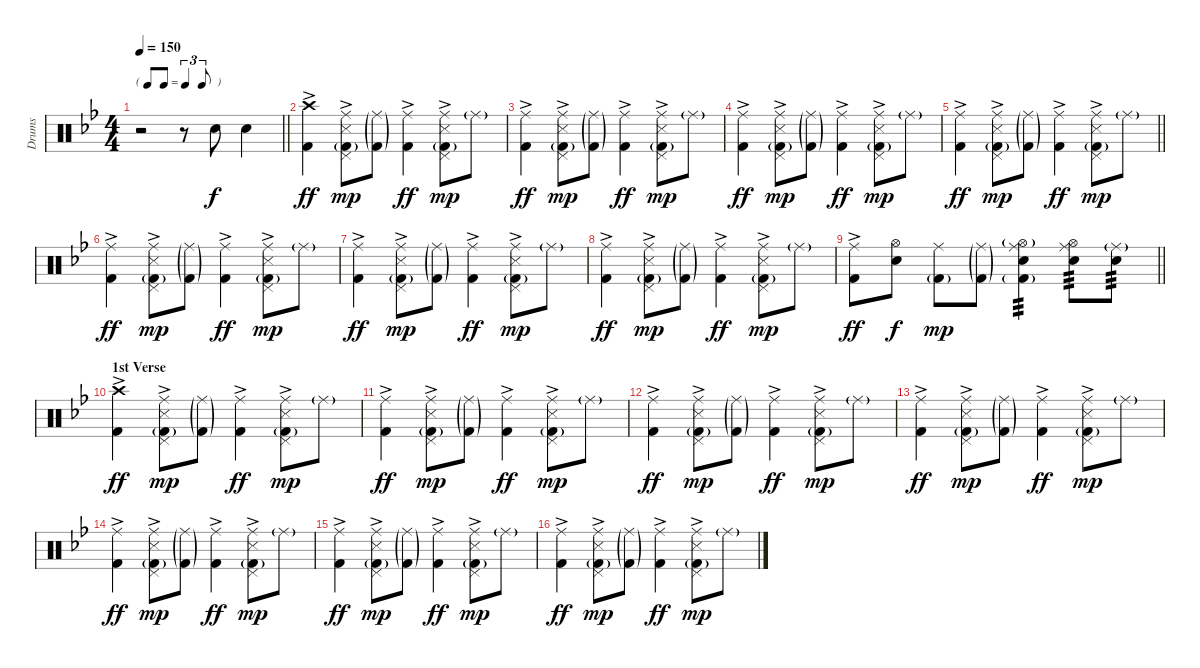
\track ("Drums" "Drums") {instrument percussion}
\staff {score}
\articulation defaults
\ts (4 4)
\tf triplet8th
\tempo 150
\clef neutral
\barLineRight lightlight
\ks bb
r.2{dy f} r.8 "Snare (hit) 2".8 "Snare (hit) 2".4 |
("Kick (hit) 2"{ac} "Crash high (hit)").4{dy ff} ("Snare (side stick) 3"{ac} "Kick (hit) 2"{g} "Pedal Hi-Hat (hit)" "Ride (middle)").8{dy mp} ("Kick (hit) 2"{g} "Ride (middle)"{g}).8 ("Kick (hit) 2"{ac} "Ride (middle)").4{dy ff} ("Snare (side stick) 3"{ac} "Kick (hit) 2"{g} "Pedal Hi-Hat (hit)" "Ride (middle)").8{dy mp} "Ride (middle)"{g}.8 |
("Kick (hit) 2"{ac} "Ride (middle)").4{dy ff} ("Snare (side stick) 3"{ac} "Kick (hit) 2"{g} "Pedal Hi-Hat (hit)" "Ride (middle)").8{dy mp} ("Kick (hit) 2"{g} "Ride (middle)"{g}).8 ("Kick (hit) 2"{ac} "Ride (middle)").4{dy ff} ("Snare (side stick) 3"{ac} "Kick (hit) 2"{g} "Pedal Hi-Hat (hit)" "Ride (middle)").8{dy mp} "Ride (middle)"{g}.8 |
("Kick (hit) 2"{ac} "Ride (middle)").4{dy ff} ("Snare (side stick) 3"{ac} "Kick (hit) 2"{g} "Pedal Hi-Hat (hit)" "Ride (middle)").8{dy mp} ("Kick (hit) 2"{g} "Ride (middle)"{g}).8 ("Kick (hit) 2"{ac} "Ride (middle)").4{dy ff} ("Snare (side stick) 3"{ac} "Kick (hit) 2"{g} "Pedal Hi-Hat (hit)" "Ride (middle)").8{dy mp} "Ride (middle)"{g}.8 |
\barLineRight lightlight
("Kick (hit) 2"{ac} "Ride (middle)").4{dy ff} ("Snare (side stick) 3"{ac} "Kick (hit) 2"{g} "Pedal Hi-Hat (hit)" "Ride (middle)").8{dy mp} ("Kick (hit) 2"{g} "Ride (middle)"{g}).8 ("Kick (hit) 2"{ac} "Ride (middle)").4{dy ff} ("Snare (side stick) 3"{ac} "Kick (hit) 2"{g} "Pedal Hi-Hat (hit)" "Ride (middle)").8{dy mp} "Ride (middle)"{g}.8 |
("Kick (hit) 2"{ac} "Ride (middle)").4{dy ff} ("Snare (side stick) 3"{ac} "Kick (hit) 2"{g} "Pedal Hi-Hat (hit)" "Ride (middle)").8{dy mp} ("Kick (hit) 2"{g} "Ride (middle)"{g}).8 ("Kick (hit) 2"{ac} "Ride (middle)").4{dy ff} ("Snare (side stick) 3"{ac} "Kick (hit) 2"{g} "Pedal Hi-Hat (hit)" "Ride (middle)").8{dy mp} "Ride (middle)"{g}.8 |
("Kick (hit) 2"{ac} "Ride (middle)").4{dy ff} ("Snare (side stick) 3"{ac} "Kick (hit) 2"{g} "Pedal Hi-Hat (hit)" "Ride (middle)").8{dy mp} ("Kick (hit) 2"{g} "Ride (middle)"{g}).8 ("Kick (hit) 2"{ac} "Ride (middle)").4{dy ff} ("Snare (side stick) 3"{ac} "Kick (hit) 2"{g} "Pedal Hi-Hat (hit)" "Ride (middle)").8{dy mp} "Ride (middle)"{g}.8 |
("Kick (hit) 2"{ac} "Ride (middle)").4{dy ff} ("Snare (side stick) 3"{ac} "Kick (hit) 2"{g} "Pedal Hi-Hat (hit)" "Ride (middle)").8{dy mp} ("Kick (hit) 2"{g} "Ride (middle)"{g}).8 ("Kick (hit) 2"{ac} "Ride (middle)").4{dy ff} ("Snare (side stick) 3"{ac} "Kick (hit) 2"{g} "Pedal Hi-Hat (hit)" "Ride (middle)").8{dy mp} "Ride (middle)"{g}.8 |
\barLineRight lightlight
("Kick (hit) 2"{ac} "Ride (middle)").8{dy ff} ("Snare (hit) 2" "Hi-Hat (open)").8{dy f} ("Kick (hit) 2"{g} "Ride (middle)").8{dy mp} ("Kick (hit) 2"{g} "Ride (middle)"{g}).8 ("Kick (hit) 2"{g} "Snare (hit) 2" "Hi-Hat (open)"{g} "Ride (middle)").4{tp 3} ("Snare (hit) 2" "Hi-Hat (open)" "Ride (middle)").8{tp 3} ("Snare (hit) 2" "Ride (middle)"{g}).8{tp 3} |
\section ("" "1st Verse")
("Kick (hit) 2"{ac} "Crash high (hit)").4{dy ff} ("Snare (side stick) 3"{ac} "Kick (hit) 2"{g} "Pedal Hi-Hat (hit)" "Ride (middle)").8{dy mp} ("Kick (hit) 2"{g} "Ride (middle)"{g}).8 ("Kick (hit) 2"{ac} "Ride (middle)").4{dy ff} ("Snare (side stick) 3"{ac} "Kick (hit) 2"{g} "Pedal Hi-Hat (hit)" "Ride (middle)").8{dy mp} "Ride (middle)"{g}.8 |
("Kick (hit) 2"{ac} "Ride (middle)").4{dy ff} ("Snare (side stick) 3"{ac} "Kick (hit) 2"{g} "Pedal Hi-Hat (hit)" "Ride (middle)").8{dy mp} ("Kick (hit) 2"{g} "Ride (middle)"{g}).8 ("Kick (hit) 2"{ac} "Ride (middle)").4{dy ff} ("Snare (side stick) 3"{ac} "Kick (hit) 2"{g} "Pedal Hi-Hat (hit)" "Ride (middle)").8{dy mp} "Ride (middle)"{g}.8 |
("Kick (hit) 2"{ac} "Ride (middle)").4{dy ff} ("Snare (side stick) 3"{ac} "Kick (hit) 2"{g} "Pedal Hi-Hat (hit)" "Ride (middle)").8{dy mp} ("Kick (hit) 2"{g} "Ride (middle)"{g}).8 ("Kick (hit) 2"{ac} "Ride (middle)").4{dy ff} ("Snare (side stick) 3"{ac} "Kick (hit) 2"{g} "Pedal Hi-Hat (hit)" "Ride (middle)").8{dy mp} "Ride (middle)"{g}.8 |
("Kick (hit) 2"{ac} "Ride (middle)").4{dy ff} ("Snare (side stick) 3"{ac} "Kick (hit) 2"{g} "Pedal Hi-Hat (hit)" "Ride (middle)").8{dy mp} ("Kick (hit) 2"{g} "Ride (middle)"{g}).8 ("Kick (hit) 2"{ac} "Ride (middle)").4{dy ff} ("Snare (side stick) 3"{ac} "Kick (hit) 2"{g} "Pedal Hi-Hat (hit)" "Ride (middle)").8{dy mp} "Ride (middle)"{g}.8 |
("Kick (hit) 2"{ac} "Ride (middle)").4{dy ff} ("Snare (side stick) 3"{ac} "Kick (hit) 2"{g} "Pedal Hi-Hat (hit)" "Ride (middle)").8{dy mp} ("Kick (hit) 2"{g} "Ride (middle)"{g}).8 ("Kick (hit) 2"{ac} "Ride (middle)").4{dy ff} ("Snare (side stick) 3"{ac} "Kick (hit) 2"{g} "Pedal Hi-Hat (hit)" "Ride (middle)").8{dy mp} "Ride (middle)"{g}.8 |
("Kick (hit) 2"{ac} "Ride (middle)").4{dy ff} ("Snare (side stick) 3"{ac} "Kick (hit) 2"{g} "Pedal Hi-Hat (hit)" "Ride (middle)").8{dy mp} ("Kick (hit) 2"{g} "Ride (middle)"{g}).8 ("Kick (hit) 2"{ac} "Ride (middle)").4{dy ff} ("Snare (side stick) 3"{ac} "Kick (hit) 2"{g} "Pedal Hi-Hat (hit)" "Ride (middle)").8{dy mp} "Ride (middle)"{g}.8 |
("Kick (hit) 2"{ac} "Ride (middle)").4{dy ff} ("Snare (side stick) 3"{ac} "Kick (hit) 2"{g} "Pedal Hi-Hat (hit)" "Ride (middle)").8{dy mp} ("Kick (hit) 2"{g} "Ride (middle)"{g}).8 ("Kick (hit) 2"{ac} "Ride (middle)").4{dy ff} ("Snare (side stick) 3"{ac} "Kick (hit) 2"{g} "Pedal Hi-Hat (hit)" "Ride (middle)").8{dy mp} "Ride (middle)"{g}.8
